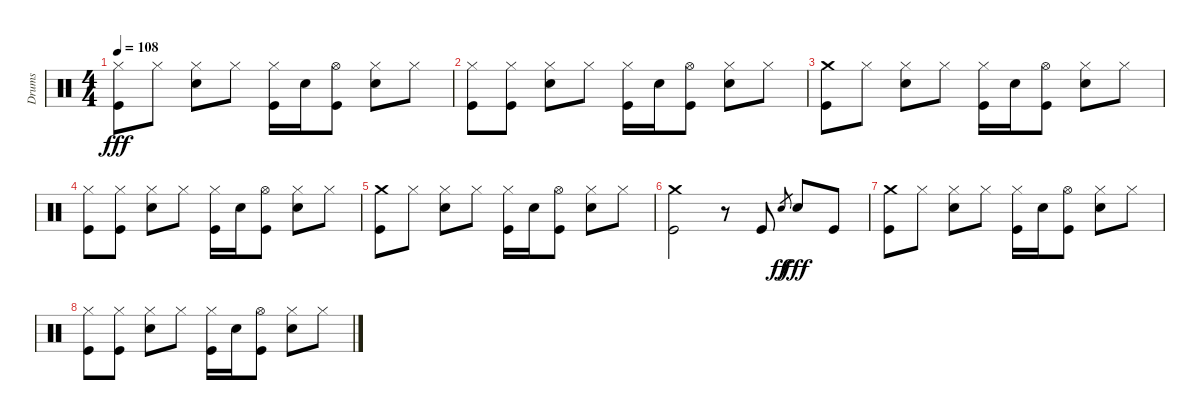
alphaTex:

\track ("Drums" "Drums") {instrument percussion}
\staff {score}
\articulation defaults
\ts (4 4)
\tempo 108
\clef neutral
\ks c
("Hi-Hat (closed)" "Kick (hit)").8{dy fff} "Hi-Hat (closed)".8 ("Hi-Hat (closed)" "Snare (hit) 2").8 "Hi-Hat (closed)".8 ("Hi-Hat (closed)" "Kick (hit)").16 "Snare (hit) 2".16 ("Hi-Hat (open)" "Kick (hit)").8 ("Hi-Hat (closed)" "Snare (hit) 2").8 "Hi-Hat (closed)".8 |
("Hi-Hat (closed)" "Kick (hit)").8 ("Hi-Hat (closed)" "Kick (hit)").8 ("Hi-Hat (closed)" "Snare (hit) 2").8 "Hi-Hat (closed)".8 ("Hi-Hat (closed)" "Kick (hit)").16 "Snare (hit) 2".16 ("Hi-Hat (open)" "Kick (hit)").8 ("Hi-Hat (closed)" "Snare (hit) 2").8 "Hi-Hat (closed)".8 |
("Crash medium (hit)" "Kick (hit)").8{volume 4} "Hi-Hat (closed)".8 ("Hi-Hat (closed)" "Snare (hit) 2").8 "Hi-Hat (closed)".8 ("Hi-Hat (closed)" "Kick (hit)").16 "Snare (hit) 2".16 ("Hi-Hat (open)" "Kick (hit)").8 ("Hi-Hat (closed)" "Snare (hit) 2").8 "Hi-Hat (closed)".8 |
("Hi-Hat (closed)" "Kick (hit)").8 ("Hi-Hat (closed)" "Kick (hit)").8 ("Hi-Hat (closed)" "Snare (hit) 2").8 "Hi-Hat (closed)".8 ("Hi-Hat (closed)" "Kick (hit)").16 "Snare (hit) 2".16 ("Hi-Hat (open)" "Kick (hit)").8 ("Hi-Hat (closed)" "Snare (hit) 2").8 "Hi-Hat (closed)".8{volume 3} |
("Crash medium (hit)" "Kick (hit)").8{volume 4} "Hi-Hat (closed)".8 ("Hi-Hat (closed)" "Snare (hit) 2").8 "Hi-Hat (closed)".8 ("Hi-Hat (closed)" "Kick (hit)").16 "Snare (hit) 2".16 ("Hi-Hat (open)" "Kick (hit)").8 ("Hi-Hat (closed)" "Snare (hit) 2").8 "Hi-Hat (closed)".8 |
("Crash medium (hit)" "Kick (hit)").2 r.8 "Kick (hit)".8 "Snare (hit)".8{gr dy ff} "Snare (hit) 2".8{dy fff} "Kick (hit)".8{volume 1} |
("Crash medium (hit)" "Kick (hit)").8{volume 4} "Hi-Hat (closed)".8 ("Hi-Hat (closed)" "Snare (hit) 2").8 "Hi-Hat (closed)".8 ("Hi-Hat (closed)" "Kick (hit)").16 "Snare (hit) 2".16 ("Hi-Hat (open)" "Kick (hit)").8 ("Hi-Hat (closed)" "Snare (hit) 2").8 "Hi-Hat (closed)".8 |
("Hi-Hat (closed)" "Kick (hit)").8 ("Hi-Hat (closed)" "Kick (hit)").8 ("Hi-Hat (closed)" "Snare (hit) 2").8 "Hi-Hat (closed)".8 ("Hi-Hat (closed)" "Kick (hit)").16 "Snare (hit) 2".16 ("Hi-Hat (open)" "Kick (hit)").8 ("Hi-Hat (closed)" "Snare (hit) 2").8 "Hi-Hat (closed)".8{volume 0}
